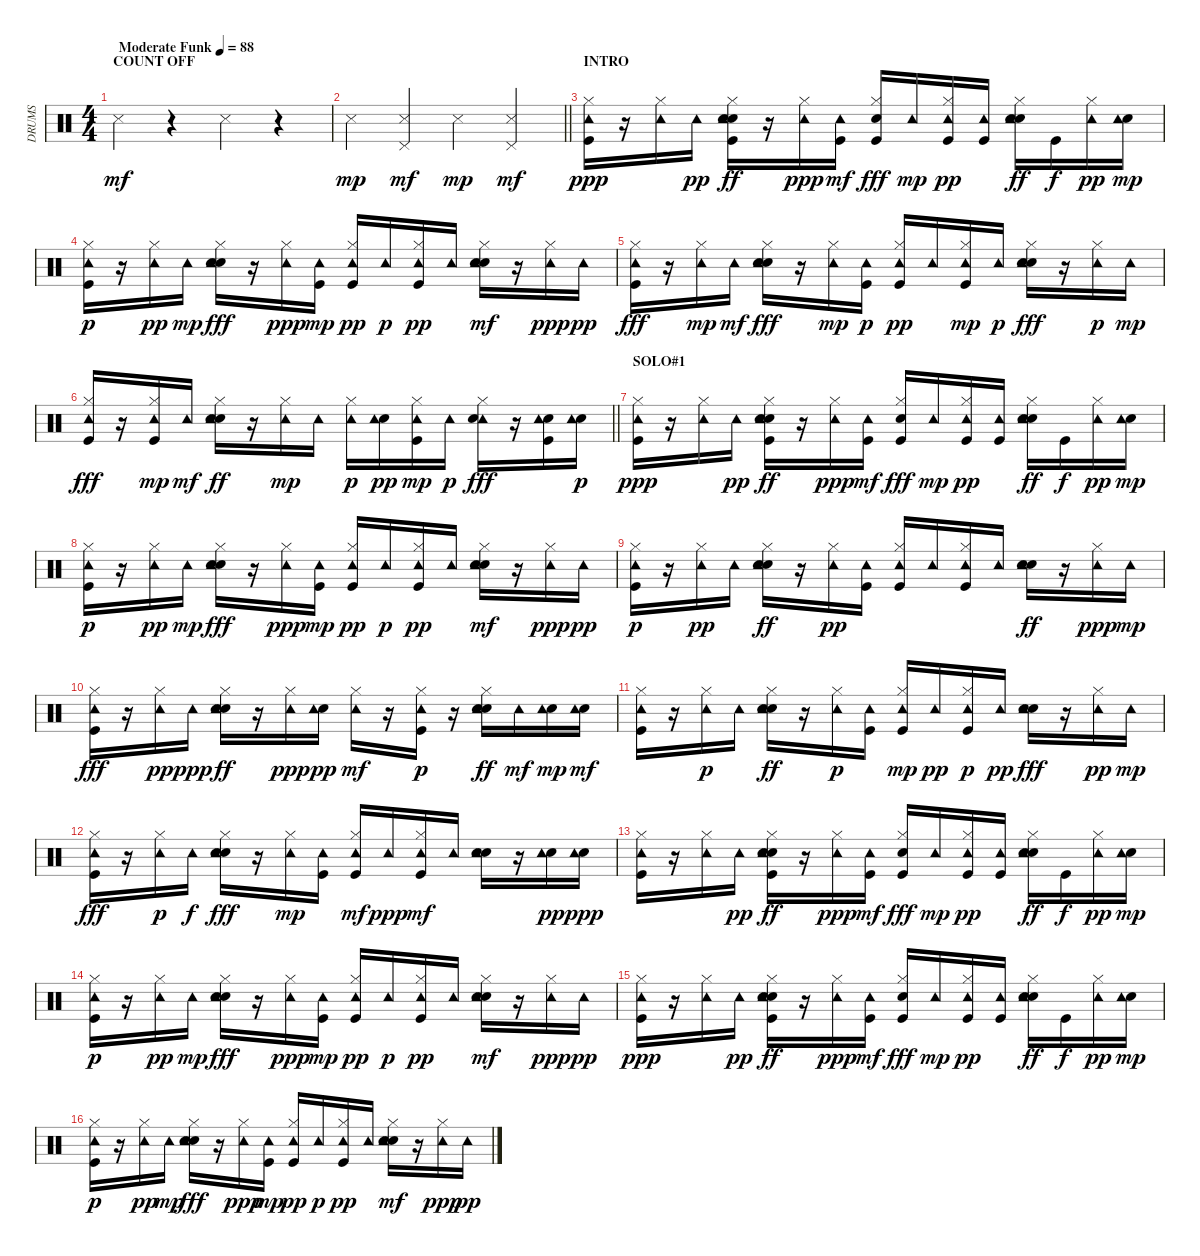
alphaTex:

\track ("DRUMS" "DRUMS") {instrument percussion}
\staff {score}
\articulation defaults
\ts (4 4)
\section ("" "COUNT OFF")
\tempo (88 "Moderate Funk")
\clef neutral
\ks c "Snare (side stick) 3".4{dy mf}
r.4 "Snare (side stick) 3".4 r.4 |
\barLineRight lightlight "Snare (side stick) 3".4{dy mp}
("Snare (side stick) 3" "Pedal Hi-Hat (hit)").4{dy mf} "Snare (side stick) 3".4{dy mp} ("Snare (side stick) 3" "Pedal Hi-Hat (hit)").4{dy mf} |
\section ("" "INTRO")
("Kick (hit)" "Hi-Hat (closed)" "Tambourine (hit)").16{dy ppp} r.16 ("Hi-Hat (closed)" "Tambourine (hit)").16 "Tambourine (hit)".16{dy pp} ("Kick (hit)" "Electric Snare (hit)" "Hi-Hat (closed)" "Tambourine (hit)" "Hand Clap (hit)").16{dy ff} r.16 ("Hi-Hat (closed)" "Tambourine (hit)").16{dy ppp} ("Kick (hit)" "Tambourine (hit)").16{dy mf} ("Kick (hit)" "Electric Snare (hit)" "Hi-Hat (closed)").16{dy fff} "Tambourine (hit)".16{dy mp} ("Kick (hit)" "Hi-Hat (closed)" "Tambourine (hit)").16{dy pp} ("Kick (hit)" "Tambourine (hit)").16 ("Electric Snare (hit)" "Hi-Hat (closed)" "Tambourine (hit)" "Hand Clap (hit)").16{dy ff} "Kick (hit)".16{dy f} ("Hi-Hat (closed)" "Tambourine (hit)").16{dy pp} ("Electric Snare (hit)" "Tambourine (hit)").16{dy mp} |
("Kick (hit)" "Hi-Hat (closed)" "Tambourine (hit)").16{dy p} r.16 ("Hi-Hat (closed)" "Tambourine (hit)").16{dy pp} "Tambourine (hit)".16{dy mp} ("Electric Snare (hit)" "Hi-Hat (closed)" "Tambourine (hit)" "Hand Clap (hit)").16{dy fff} r.16 ("Hi-Hat (closed)" "Tambourine (hit)").16{dy ppp} ("Kick (hit)" "Tambourine (hit)").16{dy mp} ("Kick (hit)" "Hi-Hat (closed)" "Tambourine (hit)").16{dy pp} "Tambourine (hit)".16{dy p} ("Kick (hit)" "Hi-Hat (closed)" "Tambourine (hit)").16{dy pp} "Tambourine (hit)".16 ("Electric Snare (hit)" "Hi-Hat (closed)" "Tambourine (hit)" "Hand Clap (hit)").16{dy mf} r.16 ("Hi-Hat (closed)" "Tambourine (hit)").16{dy ppp} "Tambourine (hit)".16{dy pp} |
("Kick (hit)" "Hi-Hat (closed)" "Tambourine (hit)").16{dy fff} r.16 ("Hi-Hat (closed)" "Tambourine (hit)").16{dy mp} "Tambourine (hit)".16{dy mf} ("Electric Snare (hit)" "Hi-Hat (closed)" "Tambourine (hit)" "Hand Clap (hit)").16{dy fff} r.16 ("Hi-Hat (closed)" "Tambourine (hit)").16{dy mp} ("Kick (hit)" "Tambourine (hit)").16{dy p} ("Kick (hit)" "Hi-Hat (closed)" "Tambourine (hit)").16{dy pp} "Tambourine (hit)".16 ("Kick (hit)" "Hi-Hat (closed)" "Tambourine (hit)").16{dy mp} "Tambourine (hit)".16{dy p} ("Electric Snare (hit)" "Hi-Hat (closed)" "Tambourine (hit)" "Hand Clap (hit)").16{dy fff} r.16 ("Hi-Hat (closed)" "Tambourine (hit)").16{dy p} "Tambourine (hit)".16{dy mp} |
\barLineRight lightlight
("Kick (hit)" "Hi-Hat (closed)" "Tambourine (hit)").16{dy fff} r.16 ("Kick (hit)" "Hi-Hat (closed)" "Tambourine (hit)").16{dy mp} "Tambourine (hit)".16{dy mf} ("Electric Snare (hit)" "Hi-Hat (closed)" "Tambourine (hit)" "Hand Clap (hit)").16{dy ff} r.16 ("Hi-Hat (closed)" "Tambourine (hit)").16{dy mp} "Tambourine (hit)".16 ("Hi-Hat (closed)" "Tambourine (hit)").16{dy p} ("Electric Snare (hit)" "Tambourine (hit)").16{dy pp} ("Kick (hit)" "Hi-Hat (closed)" "Tambourine (hit)").16{dy mp} "Tambourine (hit)".16{dy p} ("Hi-Hat (closed)" "Tambourine (hit)" "Hand Clap (hit)").16{dy fff} r.16 ("Kick (hit)" "Electric Snare (hit)" "Tambourine (hit)").16 ("Electric Snare (hit)" "Tambourine (hit)").16{dy p} |
\section ("" "SOLO#1")
("Kick (hit)" "Hi-Hat (closed)" "Tambourine (hit)").16{dy ppp} r.16 ("Hi-Hat (closed)" "Tambourine (hit)").16 "Tambourine (hit)".16{dy pp} ("Kick (hit)" "Electric Snare (hit)" "Hi-Hat (closed)" "Tambourine (hit)" "Hand Clap (hit)").16{dy ff} r.16 ("Hi-Hat (closed)" "Tambourine (hit)").16{dy ppp} ("Kick (hit)" "Tambourine (hit)").16{dy mf} ("Kick (hit)" "Electric Snare (hit)" "Hi-Hat (closed)").16{dy fff} "Tambourine (hit)".16{dy mp} ("Kick (hit)" "Hi-Hat (closed)" "Tambourine (hit)").16{dy pp} ("Kick (hit)" "Tambourine (hit)").16 ("Electric Snare (hit)" "Hi-Hat (closed)" "Tambourine (hit)" "Hand Clap (hit)").16{dy ff} "Kick (hit)".16{dy f} ("Hi-Hat (closed)" "Tambourine (hit)").16{dy pp} ("Electric Snare (hit)" "Tambourine (hit)").16{dy mp} |
("Kick (hit)" "Hi-Hat (closed)" "Tambourine (hit)").16{dy p} r.16 ("Hi-Hat (closed)" "Tambourine (hit)").16{dy pp} "Tambourine (hit)".16{dy mp} ("Electric Snare (hit)" "Hi-Hat (closed)" "Tambourine (hit)" "Hand Clap (hit)").16{dy fff} r.16 ("Hi-Hat (closed)" "Tambourine (hit)").16{dy ppp} ("Kick (hit)" "Tambourine (hit)").16{dy mp} ("Kick (hit)" "Hi-Hat (closed)" "Tambourine (hit)").16{dy pp} "Tambourine (hit)".16{dy p} ("Kick (hit)" "Hi-Hat (closed)" "Tambourine (hit)").16{dy pp} "Tambourine (hit)".16 ("Electric Snare (hit)" "Hi-Hat (closed)" "Tambourine (hit)" "Hand Clap (hit)").16{dy mf} r.16 ("Hi-Hat (closed)" "Tambourine (hit)").16{dy ppp} "Tambourine (hit)".16{dy pp} |
("Kick (hit)" "Hi-Hat (closed)" "Tambourine (hit)").16{dy p} r.16 ("Hi-Hat (closed)" "Tambourine (hit)").16{dy pp} "Tambourine (hit)".16 ("Electric Snare (hit)" "Hi-Hat (closed)" "Tambourine (hit)" "Hand Clap (hit)").16{dy ff} r.16 ("Hi-Hat (closed)" "Tambourine (hit)").16{dy pp} ("Kick (hit)" "Tambourine (hit)").16 ("Kick (hit)" "Hi-Hat (closed)" "Tambourine (hit)").16 "Tambourine (hit)".16 ("Kick (hit)" "Hi-Hat (closed)" "Tambourine (hit)").16 "Tambourine (hit)".16 ("Electric Snare (hit)" "Tambourine (hit)" "Hand Clap (hit)").16{dy ff} r.16 ("Hi-Hat (closed)" "Tambourine (hit)").16{dy ppp} "Tambourine (hit)".16{dy mp} |
("Kick (hit)" "Hi-Hat (closed)" "Tambourine (hit)").16{dy fff} r.16 ("Hi-Hat (closed)" "Tambourine (hit)").16{dy pp} "Tambourine (hit)".16{dy ppp} ("Electric Snare (hit)" "Hi-Hat (closed)" "Tambourine (hit)" "Hand Clap (hit)").16{dy ff} r.16 ("Hi-Hat (closed)" "Tambourine (hit)").16{dy ppp} ("Electric Snare (hit)" "Tambourine (hit)").16{dy pp} ("Hi-Hat (closed)" "Tambourine (hit)").16{dy mf} r.16 ("Kick (hit)" "Hi-Hat (closed)" "Tambourine (hit)").16{dy p} r.16 ("Electric Snare (hit)" "Hi-Hat (closed)" "Tambourine (hit)" "Hand Clap (hit)").16{dy ff} "Tambourine (hit)".16{dy mf} ("Electric Snare (hit)" "Tambourine (hit)").16{dy mp} ("Electric Snare (hit)" "Tambourine (hit)").16{dy mf} |
("Kick (hit)" "Hi-Hat (closed)" "Tambourine (hit)").16 r.16 ("Hi-Hat (closed)" "Tambourine (hit)").16{dy p} "Tambourine (hit)".16 ("Electric Snare (hit)" "Hi-Hat (closed)" "Tambourine (hit)" "Hand Clap (hit)").16{dy ff} r.16 ("Hi-Hat (closed)" "Tambourine (hit)").16{dy p} ("Kick (hit)" "Tambourine (hit)").16 ("Kick (hit)" "Hi-Hat (closed)" "Tambourine (hit)").16{dy mp} "Tambourine (hit)".16{dy pp} ("Kick (hit)" "Hi-Hat (closed)" "Tambourine (hit)").16{dy p} "Tambourine (hit)".16{dy pp} ("Electric Snare (hit)" "Tambourine (hit)" "Hand Clap (hit)").16{dy fff} r.16 ("Hi-Hat (closed)" "Tambourine (hit)").16{dy pp} "Tambourine (hit)".16{dy mp} |
("Kick (hit)" "Hi-Hat (closed)" "Tambourine (hit)").16{dy fff} r.16 ("Hi-Hat (closed)" "Tambourine (hit)").16{dy p} "Tambourine (hit)".16{dy f} ("Electric Snare (hit)" "Hi-Hat (closed)" "Tambourine (hit)" "Hand Clap (hit)").16{dy fff} r.16 ("Hi-Hat (closed)" "Tambourine (hit)").16{dy mp} ("Kick (hit)" "Tambourine (hit)").16 ("Kick (hit)" "Hi-Hat (closed)" "Tambourine (hit)").16{dy mf} "Tambourine (hit)".16{dy ppp} ("Kick (hit)" "Hi-Hat (closed)" "Tambourine (hit)").16{dy mf} "Tambourine (hit)".16 ("Electric Snare (hit)" "Tambourine (hit)" "Hand Clap (hit)").16 r.16 ("Electric Snare (hit)" "Tambourine (hit)").16{dy pp} ("Electric Snare (hit)" "Tambourine (hit)").16{dy ppp} |
("Kick (hit)" "Hi-Hat (closed)" "Tambourine (hit)").16 r.16 ("Hi-Hat (closed)" "Tambourine (hit)").16 "Tambourine (hit)".16{dy pp} ("Kick (hit)" "Electric Snare (hit)" "Hi-Hat (closed)" "Tambourine (hit)" "Hand Clap (hit)").16{dy ff} r.16 ("Hi-Hat (closed)" "Tambourine (hit)").16{dy ppp} ("Kick (hit)" "Tambourine (hit)").16{dy mf} ("Kick (hit)" "Electric Snare (hit)" "Hi-Hat (closed)").16{dy fff} "Tambourine (hit)".16{dy mp} ("Kick (hit)" "Hi-Hat (closed)" "Tambourine (hit)").16{dy pp} ("Kick (hit)" "Tambourine (hit)").16 ("Electric Snare (hit)" "Hi-Hat (closed)" "Tambourine (hit)" "Hand Clap (hit)").16{dy ff} "Kick (hit)".16{dy f} ("Hi-Hat (closed)" "Tambourine (hit)").16{dy pp} ("Electric Snare (hit)" "Tambourine (hit)").16{dy mp} |
("Kick (hit)" "Hi-Hat (closed)" "Tambourine (hit)").16{dy p} r.16 ("Hi-Hat (closed)" "Tambourine (hit)").16{dy pp} "Tambourine (hit)".16{dy mp} ("Electric Snare (hit)" "Hi-Hat (closed)" "Tambourine (hit)" "Hand Clap (hit)").16{dy fff} r.16 ("Hi-Hat (closed)" "Tambourine (hit)").16{dy ppp} ("Kick (hit)" "Tambourine (hit)").16{dy mp} ("Kick (hit)" "Hi-Hat (closed)" "Tambourine (hit)").16{dy pp} "Tambourine (hit)".16{dy p} ("Kick (hit)" "Hi-Hat (closed)" "Tambourine (hit)").16{dy pp} "Tambourine (hit)".16 ("Electric Snare (hit)" "Hi-Hat (closed)" "Tambourine (hit)" "Hand Clap (hit)").16{dy mf} r.16 ("Hi-Hat (closed)" "Tambourine (hit)").16{dy ppp} "Tambourine (hit)".16{dy pp} |
("Kick (hit)" "Hi-Hat (closed)" "Tambourine (hit)").16{dy ppp} r.16 ("Hi-Hat (closed)" "Tambourine (hit)").16 "Tambourine (hit)".16{dy pp} ("Kick (hit)" "Electric Snare (hit)" "Hi-Hat (closed)" "Tambourine (hit)" "Hand Clap (hit)").16{dy ff} r.16 ("Hi-Hat (closed)" "Tambourine (hit)").16{dy ppp} ("Kick (hit)" "Tambourine (hit)").16{dy mf} ("Kick (hit)" "Electric Snare (hit)" "Hi-Hat (closed)").16{dy fff} "Tambourine (hit)".16{dy mp} ("Kick (hit)" "Hi-Hat (closed)" "Tambourine (hit)").16{dy pp} ("Kick (hit)" "Tambourine (hit)").16 ("Electric Snare (hit)" "Hi-Hat (closed)" "Tambourine (hit)" "Hand Clap (hit)").16{dy ff} "Kick (hit)".16{dy f} ("Hi-Hat (closed)" "Tambourine (hit)").16{dy pp} ("Electric Snare (hit)" "Tambourine (hit)").16{dy mp} |
("Kick (hit)" "Hi-Hat (closed)" "Tambourine (hit)").16{dy p} r.16 ("Hi-Hat (closed)" "Tambourine (hit)").16{dy pp} "Tambourine (hit)".16{dy mp} ("Electric Snare (hit)" "Hi-Hat (closed)" "Tambourine (hit)" "Hand Clap (hit)").16{dy fff} r.16 ("Hi-Hat (closed)" "Tambourine (hit)").16{dy ppp} ("Kick (hit)" "Tambourine (hit)").16{dy mp} ("Kick (hit)" "Hi-Hat (closed)" "Tambourine (hit)").16{dy pp} "Tambourine (hit)".16{dy p} ("Kick (hit)" "Hi-Hat (closed)" "Tambourine (hit)").16{dy pp} "Tambourine (hit)".16 ("Electric Snare (hit)" "Hi-Hat (closed)" "Tambourine (hit)" "Hand Clap (hit)").16{dy mf} r.16 ("Hi-Hat (closed)" "Tambourine (hit)").16{dy ppp} "Tambourine (hit)".16{dy pp}
